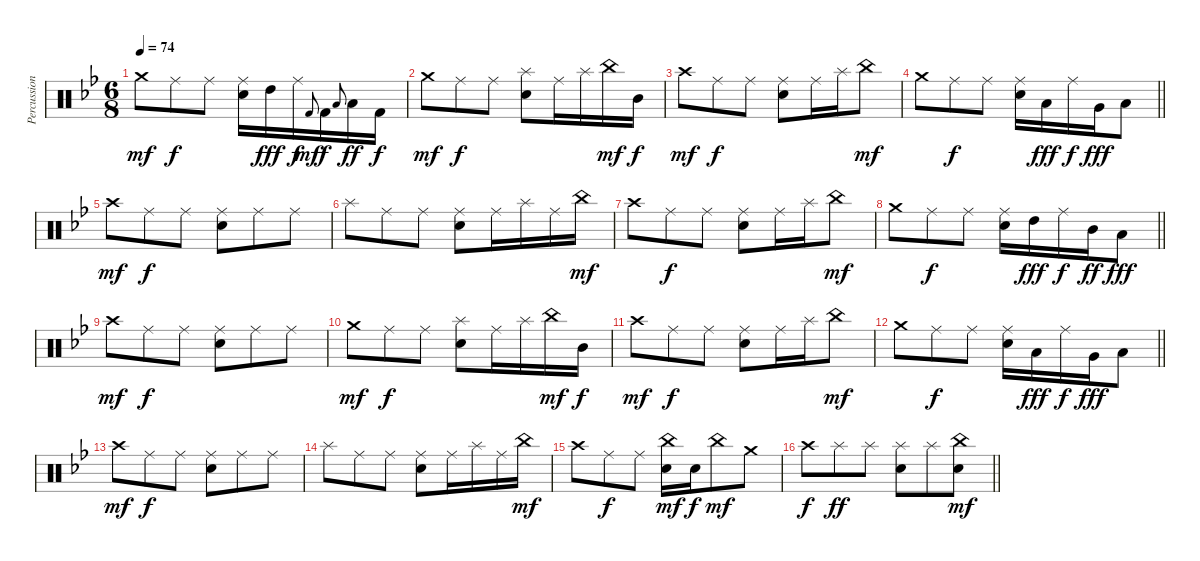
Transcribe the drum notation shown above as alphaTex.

\track ("Percussion" "Percussion") {instrument percussion}
\staff {score}
\articulation defaults
\ts (6 8)
\tempo 74
\clef neutral
\ks bb "Crash medium (hit)".8{dy mf} "Ride (middle)".8{dy f} "Ride (middle)".8
("Ride (middle)" "Electric Snare (hit)").16 "High Tom (hit)".16{dy fff} "Ride (middle)".16{dy f} "Kick (hit) 2".8{gr onbeat dy mf} "Kick (hit) 2".16{dy f} "Low Tom (hit)".8{gr onbeat} "Low Tom (hit)".16{dy ff} "Kick (hit) 2".16{dy f} |
"Crash medium (hit)".8{dy mf} "Ride (middle)".8{dy f} "Ride (middle)".8 ("Splash (hit)" "Electric Snare (hit)").8 "Ride (middle)".16 "Splash (hit)".16 "China (hit)".16{dy mf} "Mid Tom (hit)".16{dy f} |
"Crash high (hit)".8{dy mf} "Ride (middle)".8{dy f} "Ride (middle)".8 ("Ride (middle)" "Electric Snare (hit)").8 "Ride (middle)".16 "Splash (hit)".16 "China (hit)".8{dy mf} |
\barLineRight lightlight "Crash medium (hit)".8 "Ride (middle)".8{dy f} "Ride (middle)".8
("Ride (middle)" "Electric Snare (hit)").16 "Low Tom (hit)".16{dy fff} "Ride (middle)".16{dy f} "Very Low Tom (hit)".16{dy fff} "Low Floor Tom (hit)".8 |
"Crash high (hit)".8{dy mf} "Ride (middle)".8{dy f} "Ride (middle)".8 ("Ride (middle)" "Electric Snare (hit)").8 "Ride (middle)".8 "Ride (middle)".8 |
"Splash (hit)".8 "Ride (middle)".8 "Ride (middle)".8 ("Ride (middle)" "Electric Snare (hit)").8 "Ride (middle)".16 "Splash (hit)".16 "Ride (middle)".16 "China (hit)".16{dy mf} |
"Crash high (hit)".8 "Ride (middle)".8{dy f} "Ride (middle)".8 ("Ride (middle)" "Electric Snare (hit)").8 "Ride (middle)".16 "Splash (hit)".16 "China (hit)".8{dy mf} |
\barLineRight lightlight "Crash medium (hit)".8 "Ride (middle)".8{dy f} "Ride (middle)".8
("Ride (middle)" "Electric Snare (hit)").16 "High Tom (hit)".16{dy fff} "Ride (middle)".16{dy f} "Mid Tom (hit)".16{dy ff} "Low Tom (hit)".8{dy fff} |
"Crash high (hit)".8{dy mf} "Ride (middle)".8{dy f} "Ride (middle)".8 ("Ride (middle)" "Electric Snare (hit)").8 "Ride (middle)".8 "Ride (middle)".8 |
"Crash medium (hit)".8{dy mf} "Ride (middle)".8{dy f} "Ride (middle)".8 ("Splash (hit)" "Electric Snare (hit)").8 "Ride (middle)".16 "Splash (hit)".16 "China (hit)".16{dy mf} "Mid Tom (hit)".16{dy f} |
"Crash high (hit)".8{dy mf} "Ride (middle)".8{dy f} "Ride (middle)".8 ("Ride (middle)" "Electric Snare (hit)").8 "Ride (middle)".16 "Splash (hit)".16 "China (hit)".8{dy mf} |
\barLineRight lightlight "Crash medium (hit)".8 "Ride (middle)".8{dy f} "Ride (middle)".8
("Ride (middle)" "Electric Snare (hit)").16 "Low Tom (hit)".16{dy fff} "Ride (middle)".16{dy f} "Very Low Tom (hit)".16{dy fff} "Low Floor Tom (hit)".8 |
"Crash high (hit)".8{dy mf} "Ride (middle)".8{dy f} "Ride (middle)".8 ("Ride (middle)" "Electric Snare (hit)").8 "Ride (middle)".8 "Ride (middle)".8 |
"Splash (hit)".8 "Ride (middle)".8 "Ride (middle)".8 ("Ride (middle)" "Electric Snare (hit)").8 "Ride (middle)".16 "Splash (hit)".16 "Ride (middle)".16 "China (hit)".16{dy mf} |
"Crash high (hit)".8 "Ride (middle)".8{dy f} "Ride (middle)".8 ("China (hit)" "Electric Snare (hit)").16{dy mf} "Electric Snare (hit)".16{dy f} "China (hit)".8{dy mf} "Crash medium (hit)".8 |
\barLineRight lightlight "Crash high (hit)".8{dy f} "Splash (hit)".8{dy ff} "Splash (hit)".8
("Splash (hit)" "Electric Snare (hit)").8 "Splash (hit)".8 ("China (hit)" "Electric Snare (hit)").8{dy mf}
